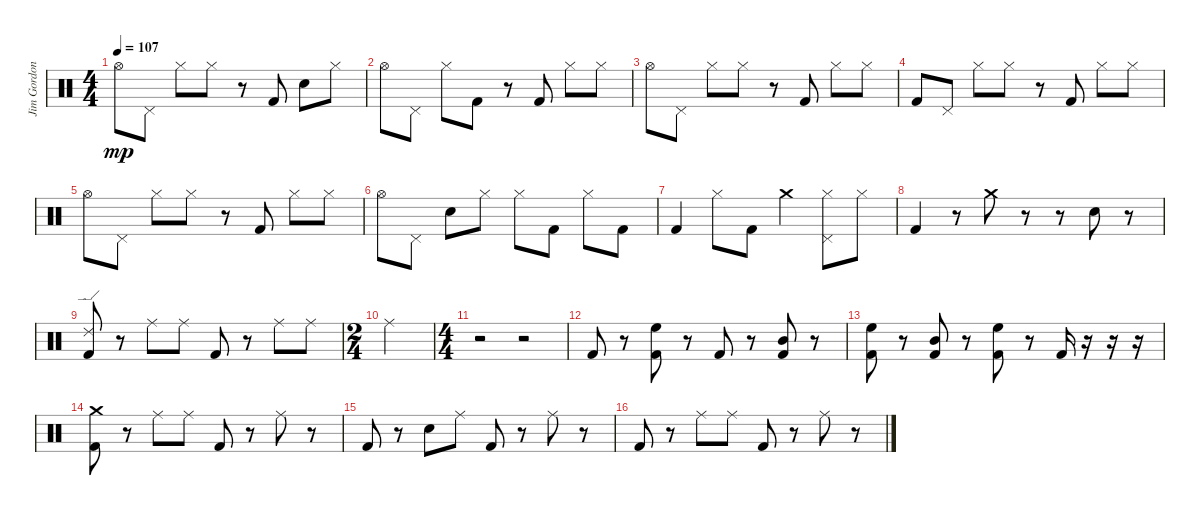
\track ("Jim Gordon (Drums)" "Jim Gordon") {instrument percussion}
\staff {score}
\articulation defaults
\ts (4 4)
\tempo 107
\clef neutral
\ks c "Hi-Hat (open)".8{dy mp} "Pedal Hi-Hat (hit)".8 "Hi-Hat (closed)".8 "Hi-Hat (closed)".8
r.8 "Kick (hit) 2".8 "Snare (hit) 2".8 "Hi-Hat (closed)".8 |
"Hi-Hat (open)".8 "Pedal Hi-Hat (hit)".8 "Hi-Hat (closed)".8 "Kick (hit) 2".8 r.8 "Kick (hit) 2".8 "Hi-Hat (closed)".8 "Hi-Hat (closed)".8 |
"Hi-Hat (open)".8 "Pedal Hi-Hat (hit)".8 "Hi-Hat (closed)".8 "Hi-Hat (closed)".8 r.8 "Kick (hit) 2".8 "Hi-Hat (closed)".8 "Hi-Hat (closed)".8 |
"Kick (hit) 2".8 "Pedal Hi-Hat (hit)".8 "Hi-Hat (closed)".8 "Hi-Hat (closed)".8 r.8 "Kick (hit) 2".8 "Hi-Hat (closed)".8 "Hi-Hat (closed)".8 |
"Hi-Hat (open)".8 "Pedal Hi-Hat (hit)".8 "Hi-Hat (closed)".8 "Hi-Hat (closed)".8 r.8 "Kick (hit) 2".8 "Hi-Hat (closed)".8 "Hi-Hat (closed)".8 |
"Hi-Hat (open)".8 "Pedal Hi-Hat (hit)".8 "Snare (hit) 2".8 "Hi-Hat (closed)".8 "Hi-Hat (closed)".8 "Kick (hit) 2".8 "Hi-Hat (closed)".8 "Kick (hit) 2".8 |
"Kick (hit) 2".4 "Hi-Hat (closed)".8 "Kick (hit) 2".8 "Crash medium (hit)".4 ("Hi-Hat (closed)" "Pedal Hi-Hat (hit)").8 "Hi-Hat (closed)".8 |
"Kick (hit) 2".4 r.8 "Crash medium (hit)".8 r.8 r.8 "Snare (hit) 2".8 r.8 |
("Ride (edge) 2" "Kick (hit) 2").8 r.8 "Ride (middle)".8 "Ride (middle)".8 "Kick (hit) 2".8 r.8 "Ride (middle)".8 "Ride (middle)".8 |
\ts (2 4)
"Ride (middle)".2 |
\ts (4 4)
r.2 r.2 |
"Kick (hit) 2".8 r.8 ("High Floor Tom (hit)" "Kick (hit) 2").8 r.8 "Kick (hit) 2".8 r.8 ("Mid Tom (hit)" "Kick (hit) 2").8 r.8 |
("High Floor Tom (hit)" "Kick (hit) 2").8 r.8 ("Mid Tom (hit)" "Kick (hit) 2").8 r.8 ("High Floor Tom (hit)" "Kick (hit) 2").8 r.8 "Kick (hit) 2".16 r.16 r.16 r.16 |
("Crash medium (hit)" "Kick (hit) 2").8 r.8 "Ride (middle)".8 "Ride (middle)".8 "Kick (hit) 2".8 r.8 "Ride (middle)".8 r.8 |
"Kick (hit) 2".8 r.8 "Snare (hit) 2".8 "Ride (middle)".8 "Kick (hit) 2".8 r.8 "Ride (middle)".8 r.8 |
"Kick (hit) 2".8 r.8 "Ride (middle)".8 "Ride (middle)".8 "Kick (hit) 2".8 r.8 "Ride (middle)".8 r.8
